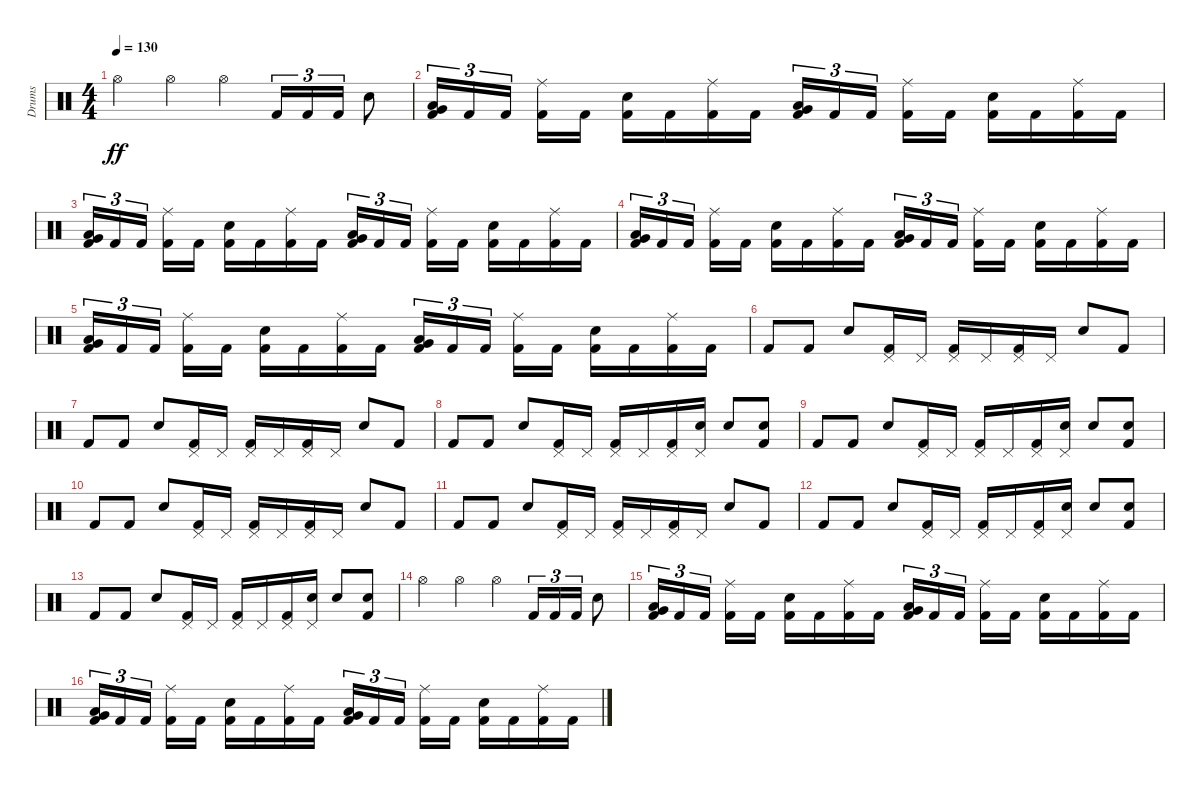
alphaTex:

\track ("Drums" "Drums") {instrument percussion}
\staff {score}
\articulation defaults
\ts (4 4)
\tempo 130
\clef neutral
\ks c "Hi-Hat (open)".4{dy ff} "Hi-Hat (open)".4 "Hi-Hat (open)".4 "Kick (hit) 2".16{tu (3 2)} "Kick (hit) 2".16{tu (3 2)} "Kick (hit) 2".16{tu (3 2)} "Snare (hit) 2".8
|
("Low Tom (hit)" "Very Low Tom (hit)" "Kick (hit) 2").16{tu (3 2)} "Kick (hit) 2".16{tu (3 2)} "Kick (hit) 2".16{tu (3 2) beam splitsecondary} ("Ride (middle)" "Kick (hit) 2").16 "Kick (hit) 2".16 ("Snare (hit) 2" "Kick (hit) 2").16 "Kick (hit) 2".16 ("Ride (middle)" "Kick (hit) 2").16 "Kick (hit) 2".16 ("Low Tom (hit)" "Very Low Tom (hit)" "Kick (hit) 2").16{tu (3 2)} "Kick (hit) 2".16{tu (3 2)} "Kick (hit) 2".16{tu (3 2) beam splitsecondary} ("Ride (middle)" "Kick (hit) 2").16 "Kick (hit) 2".16 ("Snare (hit) 2" "Kick (hit) 2").16 "Kick (hit) 2".16 ("Ride (middle)" "Kick (hit) 2").16 "Kick (hit) 2".16 |
("Low Tom (hit)" "Very Low Tom (hit)" "Kick (hit) 2").16{tu (3 2)} "Kick (hit) 2".16{tu (3 2)} "Kick (hit) 2".16{tu (3 2) beam splitsecondary} ("Ride (middle)" "Kick (hit) 2").16 "Kick (hit) 2".16 ("Snare (hit) 2" "Kick (hit) 2").16 "Kick (hit) 2".16 ("Ride (middle)" "Kick (hit) 2").16 "Kick (hit) 2".16 ("Low Tom (hit)" "Very Low Tom (hit)" "Kick (hit) 2").16{tu (3 2)} "Kick (hit) 2".16{tu (3 2)} "Kick (hit) 2".16{tu (3 2) beam splitsecondary} ("Ride (middle)" "Kick (hit) 2").16 "Kick (hit) 2".16 ("Snare (hit) 2" "Kick (hit) 2").16 "Kick (hit) 2".16 ("Ride (middle)" "Kick (hit) 2").16 "Kick (hit) 2".16 |
("Low Tom (hit)" "Very Low Tom (hit)" "Kick (hit) 2").16{tu (3 2)} "Kick (hit) 2".16{tu (3 2)} "Kick (hit) 2".16{tu (3 2) beam splitsecondary} ("Ride (middle)" "Kick (hit) 2").16 "Kick (hit) 2".16 ("Snare (hit) 2" "Kick (hit) 2").16 "Kick (hit) 2".16 ("Ride (middle)" "Kick (hit) 2").16 "Kick (hit) 2".16 ("Low Tom (hit)" "Very Low Tom (hit)" "Kick (hit) 2").16{tu (3 2)} "Kick (hit) 2".16{tu (3 2)} "Kick (hit) 2".16{tu (3 2) beam splitsecondary} ("Ride (middle)" "Kick (hit) 2").16 "Kick (hit) 2".16 ("Snare (hit) 2" "Kick (hit) 2").16 "Kick (hit) 2".16 ("Ride (middle)" "Kick (hit) 2").16 "Kick (hit) 2".16 |
("Low Tom (hit)" "Very Low Tom (hit)" "Kick (hit) 2").16{tu (3 2)} "Kick (hit) 2".16{tu (3 2)} "Kick (hit) 2".16{tu (3 2) beam splitsecondary} ("Ride (middle)" "Kick (hit) 2").16 "Kick (hit) 2".16 ("Snare (hit) 2" "Kick (hit) 2").16 "Kick (hit) 2".16 ("Ride (middle)" "Kick (hit) 2").16 "Kick (hit) 2".16 ("Low Tom (hit)" "Very Low Tom (hit)" "Kick (hit) 2").16{tu (3 2)} "Kick (hit) 2".16{tu (3 2)} "Kick (hit) 2".16{tu (3 2) beam splitsecondary} ("Ride (middle)" "Kick (hit) 2").16 "Kick (hit) 2".16 ("Snare (hit) 2" "Kick (hit) 2").16 "Kick (hit) 2".16 ("Ride (middle)" "Kick (hit) 2").16 "Kick (hit) 2".16 |
"Kick (hit) 2".8 "Kick (hit) 2".8 "Snare (hit) 2".8 ("Pedal Hi-Hat (hit)" "Kick (hit) 2").16 "Pedal Hi-Hat (hit)".16 ("Pedal Hi-Hat (hit)" "Kick (hit) 2").16 "Pedal Hi-Hat (hit)".16 ("Pedal Hi-Hat (hit)" "Kick (hit) 2").16 "Pedal Hi-Hat (hit)".16 "Snare (hit) 2".8 "Kick (hit) 2".8 |
"Kick (hit) 2".8 "Kick (hit) 2".8 "Snare (hit) 2".8 ("Pedal Hi-Hat (hit)" "Kick (hit) 2").16 "Pedal Hi-Hat (hit)".16 ("Pedal Hi-Hat (hit)" "Kick (hit) 2").16 "Pedal Hi-Hat (hit)".16 ("Pedal Hi-Hat (hit)" "Kick (hit) 2").16 "Pedal Hi-Hat (hit)".16 "Snare (hit) 2".8 "Kick (hit) 2".8 |
"Kick (hit) 2".8 "Kick (hit) 2".8 "Snare (hit) 2".8 ("Pedal Hi-Hat (hit)" "Kick (hit) 2").16 "Pedal Hi-Hat (hit)".16 ("Pedal Hi-Hat (hit)" "Kick (hit) 2").16 "Pedal Hi-Hat (hit)".16 ("Pedal Hi-Hat (hit)" "Kick (hit) 2").16 ("Pedal Hi-Hat (hit)" "Snare (hit) 2").16 "Snare (hit) 2".8 ("Snare (hit) 2" "Kick (hit) 2").8 |
"Kick (hit) 2".8 "Kick (hit) 2".8 "Snare (hit) 2".8 ("Pedal Hi-Hat (hit)" "Kick (hit) 2").16 "Pedal Hi-Hat (hit)".16 ("Pedal Hi-Hat (hit)" "Kick (hit) 2").16 "Pedal Hi-Hat (hit)".16 ("Pedal Hi-Hat (hit)" "Kick (hit) 2").16 ("Pedal Hi-Hat (hit)" "Snare (hit) 2").16 "Snare (hit) 2".8 ("Snare (hit) 2" "Kick (hit) 2").8 |
"Kick (hit) 2".8 "Kick (hit) 2".8 "Snare (hit) 2".8 ("Pedal Hi-Hat (hit)" "Kick (hit) 2").16 "Pedal Hi-Hat (hit)".16 ("Pedal Hi-Hat (hit)" "Kick (hit) 2").16 "Pedal Hi-Hat (hit)".16 ("Pedal Hi-Hat (hit)" "Kick (hit) 2").16 "Pedal Hi-Hat (hit)".16 "Snare (hit) 2".8 "Kick (hit) 2".8 |
"Kick (hit) 2".8 "Kick (hit) 2".8 "Snare (hit) 2".8 ("Pedal Hi-Hat (hit)" "Kick (hit) 2").16 "Pedal Hi-Hat (hit)".16 ("Pedal Hi-Hat (hit)" "Kick (hit) 2").16 "Pedal Hi-Hat (hit)".16 ("Pedal Hi-Hat (hit)" "Kick (hit) 2").16 "Pedal Hi-Hat (hit)".16 "Snare (hit) 2".8 "Kick (hit) 2".8 |
"Kick (hit) 2".8 "Kick (hit) 2".8 "Snare (hit) 2".8 ("Pedal Hi-Hat (hit)" "Kick (hit) 2").16 "Pedal Hi-Hat (hit)".16 ("Pedal Hi-Hat (hit)" "Kick (hit) 2").16 "Pedal Hi-Hat (hit)".16 ("Pedal Hi-Hat (hit)" "Kick (hit) 2").16 ("Pedal Hi-Hat (hit)" "Snare (hit) 2").16 "Snare (hit) 2".8 ("Snare (hit) 2" "Kick (hit) 2").8 |
"Kick (hit) 2".8 "Kick (hit) 2".8 "Snare (hit) 2".8 ("Pedal Hi-Hat (hit)" "Kick (hit) 2").16 "Pedal Hi-Hat (hit)".16 ("Pedal Hi-Hat (hit)" "Kick (hit) 2").16 "Pedal Hi-Hat (hit)".16 ("Pedal Hi-Hat (hit)" "Kick (hit) 2").16 ("Pedal Hi-Hat (hit)" "Snare (hit) 2").16 "Snare (hit) 2".8 ("Snare (hit) 2" "Kick (hit) 2").8 |
"Hi-Hat (open)".4 "Hi-Hat (open)".4 "Hi-Hat (open)".4 "Kick (hit) 2".16{tu (3 2)} "Kick (hit) 2".16{tu (3 2)} "Kick (hit) 2".16{tu (3 2)} "Snare (hit) 2".8 |
("Low Tom (hit)" "Very Low Tom (hit)" "Kick (hit) 2").16{tu (3 2)} "Kick (hit) 2".16{tu (3 2)} "Kick (hit) 2".16{tu (3 2) beam splitsecondary} ("Ride (middle)" "Kick (hit) 2").16 "Kick (hit) 2".16 ("Snare (hit) 2" "Kick (hit) 2").16 "Kick (hit) 2".16 ("Ride (middle)" "Kick (hit) 2").16 "Kick (hit) 2".16 ("Low Tom (hit)" "Very Low Tom (hit)" "Kick (hit) 2").16{tu (3 2)} "Kick (hit) 2".16{tu (3 2)} "Kick (hit) 2".16{tu (3 2) beam splitsecondary} ("Ride (middle)" "Kick (hit) 2").16 "Kick (hit) 2".16 ("Snare (hit) 2" "Kick (hit) 2").16 "Kick (hit) 2".16 ("Ride (middle)" "Kick (hit) 2").16 "Kick (hit) 2".16 |
("Low Tom (hit)" "Very Low Tom (hit)" "Kick (hit) 2").16{tu (3 2)} "Kick (hit) 2".16{tu (3 2)} "Kick (hit) 2".16{tu (3 2) beam splitsecondary} ("Ride (middle)" "Kick (hit) 2").16 "Kick (hit) 2".16 ("Snare (hit) 2" "Kick (hit) 2").16 "Kick (hit) 2".16 ("Ride (middle)" "Kick (hit) 2").16 "Kick (hit) 2".16 ("Low Tom (hit)" "Very Low Tom (hit)" "Kick (hit) 2").16{tu (3 2)} "Kick (hit) 2".16{tu (3 2)} "Kick (hit) 2".16{tu (3 2) beam splitsecondary} ("Ride (middle)" "Kick (hit) 2").16 "Kick (hit) 2".16 ("Snare (hit) 2" "Kick (hit) 2").16 "Kick (hit) 2".16 ("Ride (middle)" "Kick (hit) 2").16 "Kick (hit) 2".16
